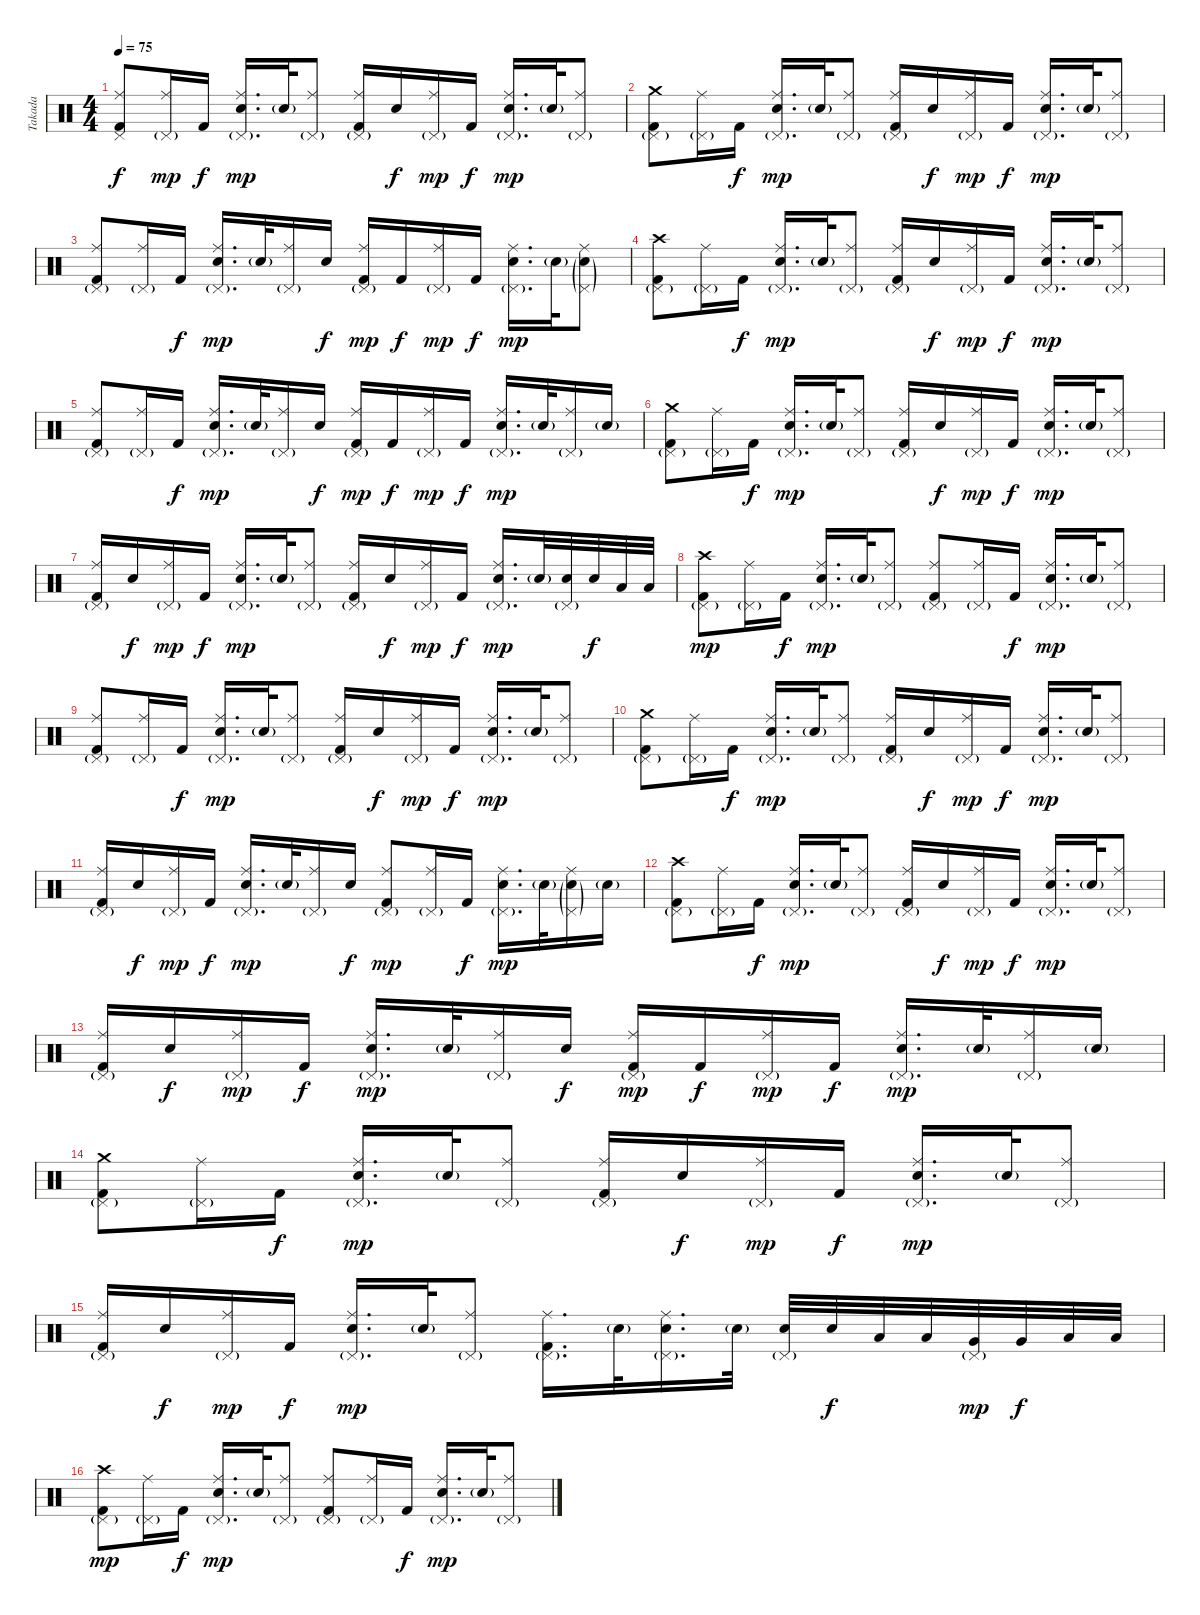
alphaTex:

\track ("Takada" "Takada") {instrument percussion}
\staff {score}
\articulation defaults
\ts (4 4)
\tempo 75
\clef neutral
\ks c
("Ride (middle)" "Pedal Hi-Hat (hit)" "Kick (hit) 2").8{dy f} ("Ride (middle)" "Pedal Hi-Hat (hit)"{g}).16{dy mp} "Kick (hit) 2".16{dy f} ("Ride (middle)" "Pedal Hi-Hat (hit)"{g} "Electric Snare (hit)").16{d dy mp} "Electric Snare (hit)"{g}.32 ("Ride (middle)" "Pedal Hi-Hat (hit)"{g}).8 ("Ride (middle)" "Pedal Hi-Hat (hit)"{g} "Kick (hit) 2").16 "Electric Snare (hit)".16{dy f} ("Ride (middle)" "Pedal Hi-Hat (hit)"{g}).16{dy mp} "Kick (hit) 2".16{dy f} ("Ride (middle)" "Pedal Hi-Hat (hit)"{g} "Electric Snare (hit)").16{d dy mp} "Electric Snare (hit)"{g}.32 ("Ride (middle)" "Pedal Hi-Hat (hit)"{g}).8 |
("Crash medium (hit)" "Pedal Hi-Hat (hit)"{g} "Kick (hit) 2").8 ("Ride (middle)" "Pedal Hi-Hat (hit)"{g}).16 "Kick (hit) 2".16{dy f} ("Ride (middle)" "Pedal Hi-Hat (hit)"{g} "Electric Snare (hit)").16{d dy mp} "Electric Snare (hit)"{g}.32 ("Ride (middle)" "Pedal Hi-Hat (hit)"{g}).8 ("Ride (middle)" "Pedal Hi-Hat (hit)"{g} "Kick (hit) 2").16 "Electric Snare (hit)".16{dy f} ("Ride (middle)" "Pedal Hi-Hat (hit)"{g}).16{dy mp} "Kick (hit) 2".16{dy f} ("Ride (middle)" "Pedal Hi-Hat (hit)"{g} "Electric Snare (hit)").16{d dy mp} "Electric Snare (hit)"{g}.32 ("Ride (middle)" "Pedal Hi-Hat (hit)"{g}).8 |
("Ride (middle)" "Pedal Hi-Hat (hit)"{g} "Kick (hit) 2").8 ("Ride (middle)" "Pedal Hi-Hat (hit)"{g}).16 "Kick (hit) 2".16{dy f} ("Ride (middle)" "Pedal Hi-Hat (hit)"{g} "Electric Snare (hit)").16{d dy mp} "Electric Snare (hit)"{g}.32 ("Ride (middle)" "Pedal Hi-Hat (hit)"{g}).16 "Electric Snare (hit)".16{dy f} ("Ride (middle)" "Pedal Hi-Hat (hit)"{g} "Kick (hit) 2").16{dy mp} "Kick (hit) 2".16{dy f} ("Ride (middle)" "Pedal Hi-Hat (hit)"{g}).16{dy mp} "Kick (hit) 2".16{dy f} ("Ride (middle)" "Pedal Hi-Hat (hit)"{g} "Electric Snare (hit)").16{d dy mp} "Electric Snare (hit)"{g}.32 ("Ride (middle)" "Pedal Hi-Hat (hit)"{g} "Electric Snare (hit)"{g}).8 |
("Crash high (hit)" "Pedal Hi-Hat (hit)"{g} "Kick (hit) 2").8 ("Ride (middle)" "Pedal Hi-Hat (hit)"{g}).16 "Kick (hit) 2".16{dy f} ("Ride (middle)" "Pedal Hi-Hat (hit)"{g} "Electric Snare (hit)").16{d dy mp} "Electric Snare (hit)"{g}.32 ("Ride (middle)" "Pedal Hi-Hat (hit)"{g}).8 ("Ride (middle)" "Pedal Hi-Hat (hit)"{g} "Kick (hit) 2").16 "Electric Snare (hit)".16{dy f} ("Ride (middle)" "Pedal Hi-Hat (hit)"{g}).16{dy mp} "Kick (hit) 2".16{dy f} ("Ride (middle)" "Pedal Hi-Hat (hit)"{g} "Electric Snare (hit)").16{d dy mp} "Electric Snare (hit)"{g}.32 ("Ride (middle)" "Pedal Hi-Hat (hit)"{g}).8 |
("Ride (middle)" "Pedal Hi-Hat (hit)"{g} "Kick (hit) 2").8 ("Ride (middle)" "Pedal Hi-Hat (hit)"{g}).16 "Kick (hit) 2".16{dy f} ("Ride (middle)" "Pedal Hi-Hat (hit)"{g} "Electric Snare (hit)").16{d dy mp} "Electric Snare (hit)"{g}.32 ("Ride (middle)" "Pedal Hi-Hat (hit)"{g}).16 "Electric Snare (hit)".16{dy f} ("Ride (middle)" "Pedal Hi-Hat (hit)"{g} "Kick (hit) 2").16{dy mp} "Kick (hit) 2".16{dy f} ("Ride (middle)" "Pedal Hi-Hat (hit)"{g}).16{dy mp} "Kick (hit) 2".16{dy f} ("Ride (middle)" "Pedal Hi-Hat (hit)"{g} "Electric Snare (hit)").16{d dy mp} "Electric Snare (hit)"{g}.32 ("Ride (middle)" "Pedal Hi-Hat (hit)"{g}).16 "Electric Snare (hit)"{g}.16 |
("Crash medium (hit)" "Pedal Hi-Hat (hit)"{g} "Kick (hit) 2").8 ("Ride (middle)" "Pedal Hi-Hat (hit)"{g}).16 "Kick (hit) 2".16{dy f} ("Ride (middle)" "Pedal Hi-Hat (hit)"{g} "Electric Snare (hit)").16{d dy mp} "Electric Snare (hit)"{g}.32 ("Ride (middle)" "Pedal Hi-Hat (hit)"{g}).8 ("Ride (middle)" "Pedal Hi-Hat (hit)"{g} "Kick (hit) 2").16 "Electric Snare (hit)".16{dy f} ("Ride (middle)" "Pedal Hi-Hat (hit)"{g}).16{dy mp} "Kick (hit) 2".16{dy f} ("Ride (middle)" "Pedal Hi-Hat (hit)"{g} "Electric Snare (hit)").16{d dy mp} "Electric Snare (hit)"{g}.32 ("Ride (middle)" "Pedal Hi-Hat (hit)"{g}).8 |
("Ride (middle)" "Pedal Hi-Hat (hit)"{g} "Kick (hit) 2").16 "Electric Snare (hit)".16{dy f} ("Ride (middle)" "Pedal Hi-Hat (hit)"{g}).16{dy mp} "Kick (hit) 2".16{dy f} ("Ride (middle)" "Pedal Hi-Hat (hit)"{g} "Electric Snare (hit)").16{d dy mp} "Electric Snare (hit)"{g}.32 ("Ride (middle)" "Pedal Hi-Hat (hit)"{g}).8 ("Ride (middle)" "Pedal Hi-Hat (hit)"{g} "Kick (hit) 2").16 "Electric Snare (hit)".16{dy f} ("Ride (middle)" "Pedal Hi-Hat (hit)"{g}).16{dy mp} "Kick (hit) 2".16{dy f} ("Ride (middle)" "Pedal Hi-Hat (hit)"{g} "Electric Snare (hit)").16{d dy mp} "Electric Snare (hit)"{g}.32 ("Pedal Hi-Hat (hit)"{g} "Electric Snare (hit)").32 "Electric Snare (hit)".32{dy f} "Low Tom (hit)".32 "Low Tom (hit)".32 |
("Crash high (hit)" "Pedal Hi-Hat (hit)"{g} "Kick (hit) 2").8{dy mp} ("Ride (middle)" "Pedal Hi-Hat (hit)"{g}).16 "Kick (hit) 2".16{dy f} ("Ride (middle)" "Pedal Hi-Hat (hit)"{g} "Electric Snare (hit)").16{d dy mp} "Electric Snare (hit)"{g}.32 ("Ride (middle)" "Pedal Hi-Hat (hit)"{g}).8 ("Ride (middle)" "Pedal Hi-Hat (hit)"{g} "Kick (hit) 2").8 ("Ride (middle)" "Pedal Hi-Hat (hit)"{g}).16 "Kick (hit) 2".16{dy f} ("Ride (middle)" "Pedal Hi-Hat (hit)"{g} "Electric Snare (hit)").16{d dy mp} "Electric Snare (hit)"{g}.32 ("Ride (middle)" "Pedal Hi-Hat (hit)"{g}).8 |
("Ride (middle)" "Pedal Hi-Hat (hit)"{g} "Kick (hit) 2").8 ("Ride (middle)" "Pedal Hi-Hat (hit)"{g}).16 "Kick (hit) 2".16{dy f} ("Ride (middle)" "Pedal Hi-Hat (hit)"{g} "Electric Snare (hit)").16{d dy mp} "Electric Snare (hit)"{g}.32 ("Ride (middle)" "Pedal Hi-Hat (hit)"{g}).8 ("Ride (middle)" "Pedal Hi-Hat (hit)"{g} "Kick (hit) 2").16 "Electric Snare (hit)".16{dy f} ("Ride (middle)" "Pedal Hi-Hat (hit)"{g}).16{dy mp} "Kick (hit) 2".16{dy f} ("Ride (middle)" "Pedal Hi-Hat (hit)"{g} "Electric Snare (hit)").16{d dy mp} "Electric Snare (hit)"{g}.32 ("Ride (middle)" "Pedal Hi-Hat (hit)"{g}).8 |
("Crash medium (hit)" "Pedal Hi-Hat (hit)"{g} "Kick (hit) 2").8 ("Ride (middle)" "Pedal Hi-Hat (hit)"{g}).16 "Kick (hit) 2".16{dy f} ("Ride (middle)" "Pedal Hi-Hat (hit)"{g} "Electric Snare (hit)").16{d dy mp} "Electric Snare (hit)"{g}.32 ("Ride (middle)" "Pedal Hi-Hat (hit)"{g}).8 ("Ride (middle)" "Pedal Hi-Hat (hit)"{g} "Kick (hit) 2").16 "Electric Snare (hit)".16{dy f} ("Ride (middle)" "Pedal Hi-Hat (hit)"{g}).16{dy mp} "Kick (hit) 2".16{dy f} ("Ride (middle)" "Pedal Hi-Hat (hit)"{g} "Electric Snare (hit)").16{d dy mp} "Electric Snare (hit)"{g}.32 ("Ride (middle)" "Pedal Hi-Hat (hit)"{g}).8 |
("Ride (middle)" "Pedal Hi-Hat (hit)"{g} "Kick (hit) 2").16 "Electric Snare (hit)".16{dy f} ("Ride (middle)" "Pedal Hi-Hat (hit)"{g}).16{dy mp} "Kick (hit) 2".16{dy f} ("Ride (middle)" "Pedal Hi-Hat (hit)"{g} "Electric Snare (hit)").16{d dy mp} "Electric Snare (hit)"{g}.32 ("Ride (middle)" "Pedal Hi-Hat (hit)"{g}).16 "Electric Snare (hit)".16{dy f} ("Ride (middle)" "Pedal Hi-Hat (hit)"{g} "Kick (hit) 2").8{dy mp} ("Ride (middle)" "Pedal Hi-Hat (hit)"{g}).16 "Kick (hit) 2".16{dy f} ("Ride (middle)" "Pedal Hi-Hat (hit)"{g} "Electric Snare (hit)").16{d dy mp} "Electric Snare (hit)"{g}.32 ("Ride (middle)" "Pedal Hi-Hat (hit)"{g} "Electric Snare (hit)"{g}).16 "Electric Snare (hit)"{g}.16 |
("Crash high (hit)" "Pedal Hi-Hat (hit)"{g} "Kick (hit) 2").8 ("Ride (middle)" "Pedal Hi-Hat (hit)"{g}).16 "Kick (hit) 2".16{dy f} ("Ride (middle)" "Pedal Hi-Hat (hit)"{g} "Electric Snare (hit)").16{d dy mp} "Electric Snare (hit)"{g}.32 ("Ride (middle)" "Pedal Hi-Hat (hit)"{g}).8 ("Ride (middle)" "Pedal Hi-Hat (hit)"{g} "Kick (hit) 2").16 "Electric Snare (hit)".16{dy f} ("Ride (middle)" "Pedal Hi-Hat (hit)"{g}).16{dy mp} "Kick (hit) 2".16{dy f} ("Ride (middle)" "Pedal Hi-Hat (hit)"{g} "Electric Snare (hit)").16{d dy mp} "Electric Snare (hit)"{g}.32 ("Ride (middle)" "Pedal Hi-Hat (hit)"{g}).8 |
("Ride (middle)" "Pedal Hi-Hat (hit)"{g} "Kick (hit) 2").16 "Electric Snare (hit)".16{dy f} ("Ride (middle)" "Pedal Hi-Hat (hit)"{g}).16{dy mp} "Kick (hit) 2".16{dy f} ("Ride (middle)" "Pedal Hi-Hat (hit)"{g} "Electric Snare (hit)").16{d dy mp} "Electric Snare (hit)"{g}.32 ("Ride (middle)" "Pedal Hi-Hat (hit)"{g}).16 "Electric Snare (hit)".16{dy f} ("Ride (middle)" "Pedal Hi-Hat (hit)"{g} "Kick (hit) 2").16{dy mp} "Kick (hit) 2".16{dy f} ("Ride (middle)" "Pedal Hi-Hat (hit)"{g}).16{dy mp} "Kick (hit) 2".16{dy f} ("Ride (middle)" "Pedal Hi-Hat (hit)"{g} "Electric Snare (hit)").16{d dy mp} "Electric Snare (hit)"{g}.32 ("Ride (middle)" "Pedal Hi-Hat (hit)"{g}).16 "Electric Snare (hit)"{g}.16 |
("Crash medium (hit)" "Pedal Hi-Hat (hit)"{g} "Kick (hit) 2").8 ("Ride (middle)" "Pedal Hi-Hat (hit)"{g}).16 "Kick (hit) 2".16{dy f} ("Ride (middle)" "Pedal Hi-Hat (hit)"{g} "Electric Snare (hit)").16{d dy mp} "Electric Snare (hit)"{g}.32 ("Ride (middle)" "Pedal Hi-Hat (hit)"{g}).8 ("Ride (middle)" "Pedal Hi-Hat (hit)"{g} "Kick (hit) 2").16 "Electric Snare (hit)".16{dy f} ("Ride (middle)" "Pedal Hi-Hat (hit)"{g}).16{dy mp} "Kick (hit) 2".16{dy f} ("Ride (middle)" "Pedal Hi-Hat (hit)"{g} "Electric Snare (hit)").16{d dy mp} "Electric Snare (hit)"{g}.32 ("Ride (middle)" "Pedal Hi-Hat (hit)"{g}).8 |
("Ride (middle)" "Pedal Hi-Hat (hit)"{g} "Kick (hit) 2").16 "Electric Snare (hit)".16{dy f} ("Ride (middle)" "Pedal Hi-Hat (hit)"{g}).16{dy mp} "Kick (hit) 2".16{dy f} ("Ride (middle)" "Pedal Hi-Hat (hit)"{g} "Electric Snare (hit)").16{d dy mp} "Electric Snare (hit)"{g}.32 ("Ride (middle)" "Pedal Hi-Hat (hit)"{g}).8 ("Ride (middle)" "Pedal Hi-Hat (hit)"{g} "Kick (hit) 2").16{d} "Electric Snare (hit)"{g}.32 ("Ride (middle)" "Pedal Hi-Hat (hit)"{g} "Electric Snare (hit)").16{d} "Electric Snare (hit)"{g}.32 ("Pedal Hi-Hat (hit)"{g} "Electric Snare (hit)").32 "Electric Snare (hit)".32{dy f} "Low Tom (hit)".32 "Low Tom (hit)".32 ("Pedal Hi-Hat (hit)"{g} "Very Low Tom (hit)").32{dy mp} "Very Low Tom (hit)".32{dy f} "Low Floor Tom (hit)".32 "Low Floor Tom (hit)".32 |
("Crash high (hit)" "Pedal Hi-Hat (hit)"{g} "Kick (hit) 2").8{dy mp} ("Ride (middle)" "Pedal Hi-Hat (hit)"{g}).16 "Kick (hit) 2".16{dy f} ("Ride (middle)" "Pedal Hi-Hat (hit)"{g} "Electric Snare (hit)").16{d dy mp} "Electric Snare (hit)"{g}.32 ("Ride (middle)" "Pedal Hi-Hat (hit)"{g}).8 ("Ride (middle)" "Pedal Hi-Hat (hit)"{g} "Kick (hit) 2").8 ("Ride (middle)" "Pedal Hi-Hat (hit)"{g}).16 "Kick (hit) 2".16{dy f} ("Ride (middle)" "Pedal Hi-Hat (hit)"{g} "Electric Snare (hit)").16{d dy mp} "Electric Snare (hit)"{g}.32 ("Ride (middle)" "Pedal Hi-Hat (hit)"{g}).8
